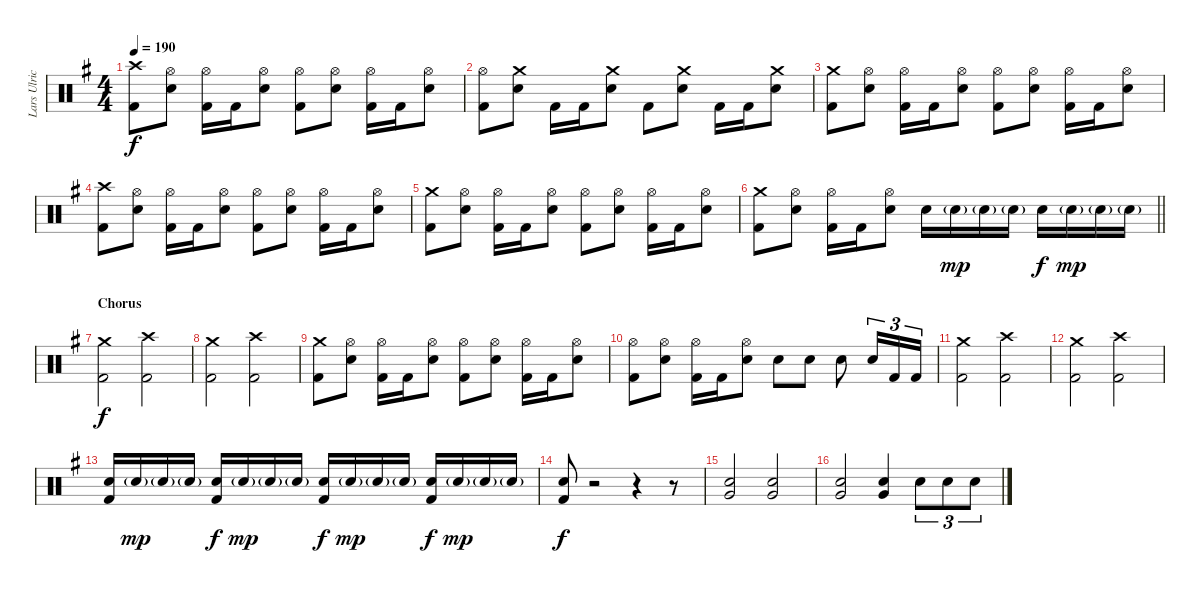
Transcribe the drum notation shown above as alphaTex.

\track ("Lars Ulrich - Drums" "Lars Ulric") {instrument percussion}
\staff {score}
\articulation defaults
\ts (4 4)
\tempo 190
\clef neutral
\ks eminor
("Crash high (hit)" "Kick (hit) 2").8{dy f} ("Hi-Hat (open)" "Snare (hit) 2").8 ("Hi-Hat (open)" "Kick (hit) 2").16 "Kick (hit) 2".16 ("Hi-Hat (open)" "Snare (hit) 2").8 ("Hi-Hat (open)" "Kick (hit) 2").8 ("Hi-Hat (open)" "Snare (hit) 2").8 ("Hi-Hat (open)" "Kick (hit) 2").16 "Kick (hit) 2".16 ("Hi-Hat (open)" "Snare (hit) 2").8 |
("Hi-Hat (open)" "Kick (hit) 2").8 ("Crash medium (hit)" "Snare (hit) 2").8 "Kick (hit) 2".16 "Kick (hit) 2".16 ("Crash medium (hit)" "Snare (hit) 2").8 "Kick (hit) 2".8 ("Crash medium (hit)" "Snare (hit) 2").8 "Kick (hit) 2".16 "Kick (hit) 2".16 ("Crash medium (hit)" "Snare (hit) 2").8 |
("Crash medium (hit)" "Kick (hit) 2").8 ("Hi-Hat (open)" "Snare (hit) 2").8 ("Hi-Hat (open)" "Kick (hit) 2").16 "Kick (hit) 2".16 ("Hi-Hat (open)" "Snare (hit) 2").8 ("Hi-Hat (open)" "Kick (hit) 2").8 ("Hi-Hat (open)" "Snare (hit) 2").8 ("Hi-Hat (open)" "Kick (hit) 2").16 "Kick (hit) 2".16 ("Hi-Hat (open)" "Snare (hit) 2").8 |
("Crash high (hit)" "Kick (hit) 2").8 ("Hi-Hat (open)" "Snare (hit) 2").8 ("Hi-Hat (open)" "Kick (hit) 2").16 "Kick (hit) 2".16 ("Hi-Hat (open)" "Snare (hit) 2").8 ("Hi-Hat (open)" "Kick (hit) 2").8 ("Hi-Hat (open)" "Snare (hit) 2").8 ("Hi-Hat (open)" "Kick (hit) 2").16 "Kick (hit) 2".16 ("Hi-Hat (open)" "Snare (hit) 2").8 |
("Crash medium (hit)" "Kick (hit) 2").8 ("Hi-Hat (open)" "Snare (hit) 2").8 ("Hi-Hat (open)" "Kick (hit) 2").16 "Kick (hit) 2".16 ("Hi-Hat (open)" "Snare (hit) 2").8 ("Hi-Hat (open)" "Kick (hit) 2").8 ("Hi-Hat (open)" "Snare (hit) 2").8 ("Hi-Hat (open)" "Kick (hit) 2").16 "Kick (hit) 2".16 ("Hi-Hat (open)" "Snare (hit) 2").8 |
\barLineRight lightlight
("Crash medium (hit)" "Kick (hit) 2").8 ("Hi-Hat (open)" "Snare (hit) 2").8 ("Hi-Hat (open)" "Kick (hit) 2").16 "Kick (hit) 2".16 ("Hi-Hat (open)" "Snare (hit) 2").8 "Snare (hit) 2".16 "Snare (hit) 2"{g}.16{dy mp} "Snare (hit) 2"{g}.16 "Snare (hit) 2"{g}.16 "Snare (hit) 2".16{dy f} "Snare (hit) 2"{g}.16{dy mp} "Snare (hit) 2"{g}.16 "Snare (hit) 2"{g}.16 |
\section ("" "Chorus")
("Crash medium (hit)" "Kick (hit) 2").2{dy f} ("Crash high (hit)" "Kick (hit) 2").2 |
("Crash medium (hit)" "Kick (hit) 2").2 ("Crash high (hit)" "Kick (hit) 2").2 |
("Crash medium (hit)" "Kick (hit) 2").8 ("Hi-Hat (open)" "Snare (hit) 2").8 ("Hi-Hat (open)" "Kick (hit) 2").16 "Kick (hit) 2".16 ("Hi-Hat (open)" "Snare (hit) 2").8 ("Hi-Hat (open)" "Kick (hit) 2").8 ("Hi-Hat (open)" "Snare (hit) 2").8 ("Hi-Hat (open)" "Kick (hit) 2").16 "Kick (hit) 2".16 ("Hi-Hat (open)" "Snare (hit) 2").8 |
("Hi-Hat (open)" "Kick (hit) 2").8 ("Hi-Hat (open)" "Snare (hit) 2").8 ("Hi-Hat (open)" "Kick (hit) 2").16 "Kick (hit) 2".16 ("Hi-Hat (open)" "Snare (hit) 2").8 "Snare (hit) 2".8 "Snare (hit) 2".8 "Snare (hit) 2".8 "Snare (hit) 2".16{tu (3 2)} "Kick (hit) 2".16{tu (3 2)} "Kick (hit) 2".16{tu (3 2)} |
("Crash medium (hit)" "Kick (hit) 2").2 ("Crash high (hit)" "Kick (hit) 2").2 |
("Crash medium (hit)" "Kick (hit) 2").2 ("Crash high (hit)" "Kick (hit) 2").2 |
("Snare (hit) 2" "Kick (hit) 2").16 "Snare (hit) 2"{g}.16{dy mp} "Snare (hit) 2"{g}.16 "Snare (hit) 2"{g}.16 ("Snare (hit) 2" "Kick (hit) 2").16{dy f} "Snare (hit) 2"{g}.16{dy mp} "Snare (hit) 2"{g}.16 "Snare (hit) 2"{g}.16 ("Snare (hit) 2" "Kick (hit) 2").16{dy f} "Snare (hit) 2"{g}.16{dy mp} "Snare (hit) 2"{g}.16 "Snare (hit) 2"{g}.16 ("Snare (hit) 2" "Kick (hit) 2").16{dy f} "Snare (hit) 2"{g}.16{dy mp} "Snare (hit) 2"{g}.16 "Snare (hit) 2"{g}.16 |
("Snare (hit) 2" "Kick (hit) 2").8{dy f} r.2 r.4 r.8 |
("Very Low Tom (hit)" "Electric Snare (hit)").2 ("Very Low Tom (hit)" "Electric Snare (hit)").2 |
("Very Low Tom (hit)" "Electric Snare (hit)").2 ("Very Low Tom (hit)" "Electric Snare (hit)").4 "Electric Snare (hit)".8{tu (3 2)} "Electric Snare (hit)".8{tu (3 2)} "Electric Snare (hit)".8{tu (3 2)}
